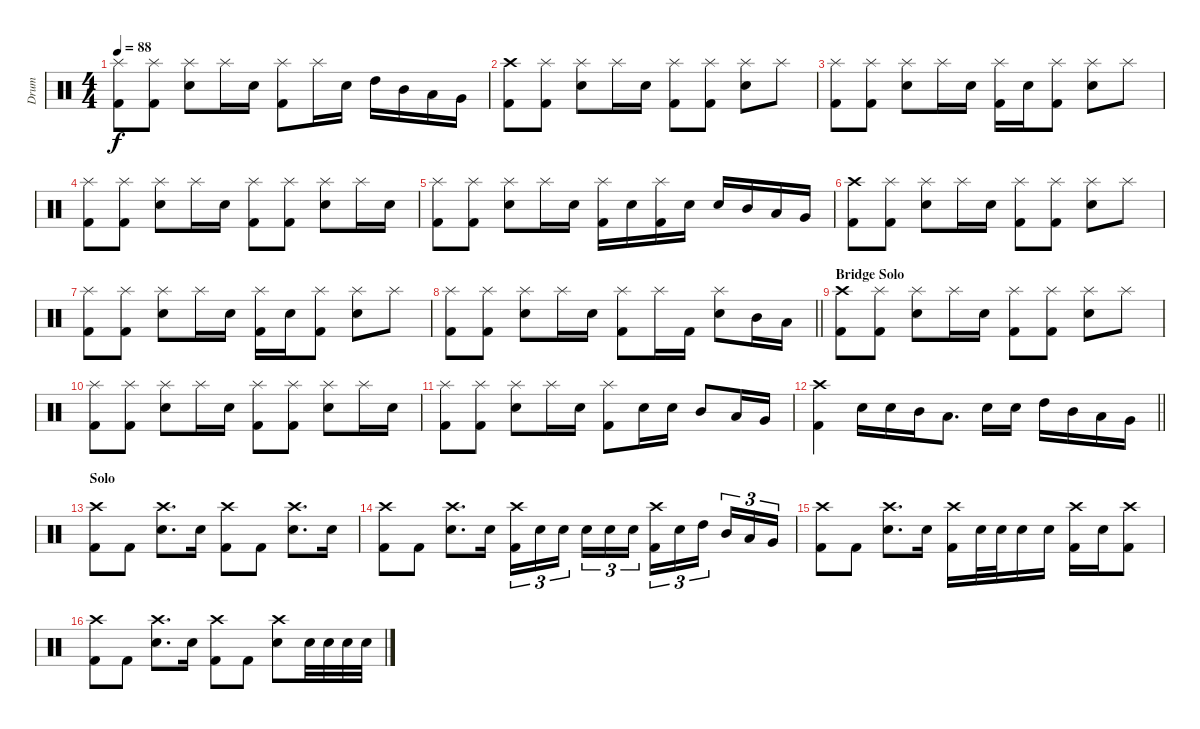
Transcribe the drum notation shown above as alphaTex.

\track ("Drum" "Drum") {instrument percussion}
\staff {score}
\articulation defaults
\ts (4 4)
\tempo 88
\clef neutral
\ks c
("Splash (hit)" "Kick (hit) 2").8{dy f} ("Splash (hit)" "Kick (hit) 2").8 ("Splash (hit)" "Electric Snare (hit)").8 "Splash (hit)".16 "Electric Snare (hit)".16 ("Splash (hit)" "Kick (hit) 2").8 "Splash (hit)".16 "Electric Snare (hit)".16 "High Tom (hit)".16 "Mid Tom (hit)".16 "Low Tom (hit)".16 "Very Low Tom (hit)".16 |
("Crash high (hit)" "Kick (hit) 2").8 ("Splash (hit)" "Kick (hit) 2").8 ("Splash (hit)" "Electric Snare (hit)").8 "Splash (hit)".16 "Electric Snare (hit)".16 ("Splash (hit)" "Kick (hit) 2").8 ("Splash (hit)" "Kick (hit) 2").8 ("Splash (hit)" "Electric Snare (hit)").8 "Splash (hit)".8 |
("Splash (hit)" "Kick (hit) 2").8 ("Splash (hit)" "Kick (hit) 2").8 ("Splash (hit)" "Electric Snare (hit)").8 "Splash (hit)".16 "Electric Snare (hit)".16 ("Splash (hit)" "Kick (hit) 2").16 "Electric Snare (hit)".16 ("Splash (hit)" "Kick (hit) 2").8 ("Splash (hit)" "Electric Snare (hit)").8 "Splash (hit)".8 |
("Splash (hit)" "Kick (hit) 2").8 ("Splash (hit)" "Kick (hit) 2").8 ("Splash (hit)" "Electric Snare (hit)").8 "Splash (hit)".16 "Electric Snare (hit)".16 ("Splash (hit)" "Kick (hit) 2").8 ("Splash (hit)" "Kick (hit) 2").8 ("Splash (hit)" "Electric Snare (hit)").8 "Splash (hit)".16 "Electric Snare (hit)".16 |
("Splash (hit)" "Kick (hit) 2").8 ("Splash (hit)" "Kick (hit) 2").8 ("Splash (hit)" "Electric Snare (hit)").8 "Splash (hit)".16 "Electric Snare (hit)".16 ("Splash (hit)" "Kick (hit) 2").16 "Electric Snare (hit)".16 ("Splash (hit)" "Kick (hit) 2").16 "Electric Snare (hit)".16 "Electric Snare (hit)".16 "Mid Tom (hit)".16 "Low Tom (hit)".16 "Very Low Tom (hit)".16 |
("Crash high (hit)" "Kick (hit) 2").8 ("Splash (hit)" "Kick (hit) 2").8 ("Splash (hit)" "Electric Snare (hit)").8 "Splash (hit)".16 "Electric Snare (hit)".16 ("Splash (hit)" "Kick (hit) 2").8 ("Splash (hit)" "Kick (hit) 2").8 ("Splash (hit)" "Electric Snare (hit)").8 "Splash (hit)".8 |
("Splash (hit)" "Kick (hit) 2").8 ("Splash (hit)" "Kick (hit) 2").8 ("Splash (hit)" "Electric Snare (hit)").8 "Splash (hit)".16 "Electric Snare (hit)".16 ("Splash (hit)" "Kick (hit) 2").16 "Electric Snare (hit)".16 ("Splash (hit)" "Kick (hit) 2").8 ("Splash (hit)" "Electric Snare (hit)").8 "Splash (hit)".8 |
\barLineRight lightlight
("Splash (hit)" "Kick (hit) 2").8 ("Splash (hit)" "Kick (hit) 2").8 ("Splash (hit)" "Electric Snare (hit)").8 "Splash (hit)".16 "Electric Snare (hit)".16 ("Splash (hit)" "Kick (hit) 2").8 "Splash (hit)".16 "Kick (hit) 2".16 ("Splash (hit)" "Electric Snare (hit)").8 "Mid Tom (hit)".16 "Low Tom (hit)".16 |
\section ("" "Bridge Solo")
("Crash high (hit)" "Kick (hit) 2").8 ("Splash (hit)" "Kick (hit) 2").8 ("Splash (hit)" "Electric Snare (hit)").8 "Splash (hit)".16 "Electric Snare (hit)".16 ("Splash (hit)" "Kick (hit) 2").8 ("Splash (hit)" "Kick (hit) 2").8 ("Splash (hit)" "Electric Snare (hit)").8 "Splash (hit)".8 |
("Splash (hit)" "Kick (hit) 2").8 ("Splash (hit)" "Kick (hit) 2").8 ("Splash (hit)" "Electric Snare (hit)").8 "Splash (hit)".16 "Electric Snare (hit)".16 ("Splash (hit)" "Kick (hit) 2").8 ("Splash (hit)" "Kick (hit) 2").8 ("Splash (hit)" "Electric Snare (hit)").8 "Splash (hit)".16 "Electric Snare (hit)".16 |
("Splash (hit)" "Kick (hit) 2").8 ("Splash (hit)" "Kick (hit) 2").8 ("Splash (hit)" "Electric Snare (hit)").8 "Splash (hit)".16 "Electric Snare (hit)".16 ("Splash (hit)" "Kick (hit) 2").8 "Electric Snare (hit)".16 "Electric Snare (hit)".16 "Mid Tom (hit)".8 "Low Tom (hit)".16 "Very Low Tom (hit)".16 |
\barLineRight lightlight
("Crash high (hit)" "Kick (hit) 2").4 "Electric Snare (hit)".16 "Electric Snare (hit)".16 "Mid Tom (hit)".16 "Low Tom (hit)".8{d} "Electric Snare (hit)".16 "Electric Snare (hit)".16 "High Tom (hit)".16 "Mid Tom (hit)".16 "Low Tom (hit)".16 "Very Low Tom (hit)".16 |
\section ("" "Solo")
("Crash high (hit)" "Kick (hit) 2").8 "Kick (hit) 2".8 ("Crash high (hit)" "Electric Snare (hit)").8{d} "Electric Snare (hit)".16 ("Crash high (hit)" "Kick (hit) 2").8 "Kick (hit) 2".8 ("Crash high (hit)" "Electric Snare (hit)").8{d} "Electric Snare (hit)".16 |
("Crash high (hit)" "Kick (hit) 2").8 "Kick (hit) 2".8 ("Crash high (hit)" "Electric Snare (hit)").8{d} "Electric Snare (hit)".16 ("Crash high (hit)" "Kick (hit) 2").16{tu (3 2)} "Electric Snare (hit)".16{tu (3 2)} "Electric Snare (hit)".16{tu (3 2) beam splitsecondary} "Electric Snare (hit)".16{tu (3 2)} "Electric Snare (hit)".16{tu (3 2)} "Electric Snare (hit)".16{tu (3 2)} ("Crash high (hit)" "Kick (hit) 2").16{tu (3 2)} "Electric Snare (hit)".16{tu (3 2)} "High Tom (hit)".16{tu (3 2) beam splitsecondary} "Mid Tom (hit)".16{tu (3 2)} "Low Tom (hit)".16{tu (3 2)} "Very Low Tom (hit)".16{tu (3 2)} |
("Crash high (hit)" "Kick (hit) 2").8 "Kick (hit) 2".8 ("Crash high (hit)" "Electric Snare (hit)").8{d} "Electric Snare (hit)".16 ("Crash high (hit)" "Kick (hit) 2").16 "Electric Snare (hit)".32 "Electric Snare (hit)".32 "Electric Snare (hit)".16 "Electric Snare (hit)".16 ("Crash high (hit)" "Kick (hit) 2").16 "Electric Snare (hit)".16 ("Crash high (hit)" "Kick (hit) 2").8 |
("Crash high (hit)" "Kick (hit) 2").8 "Kick (hit) 2".8 ("Crash high (hit)" "Electric Snare (hit)").8{d} "Electric Snare (hit)".16 ("Crash high (hit)" "Kick (hit) 2").8 "Kick (hit) 2".8 ("Crash high (hit)" "Electric Snare (hit)").8 "Electric Snare (hit)".32 "Electric Snare (hit)".32 "Electric Snare (hit)".32 "Electric Snare (hit)".32
